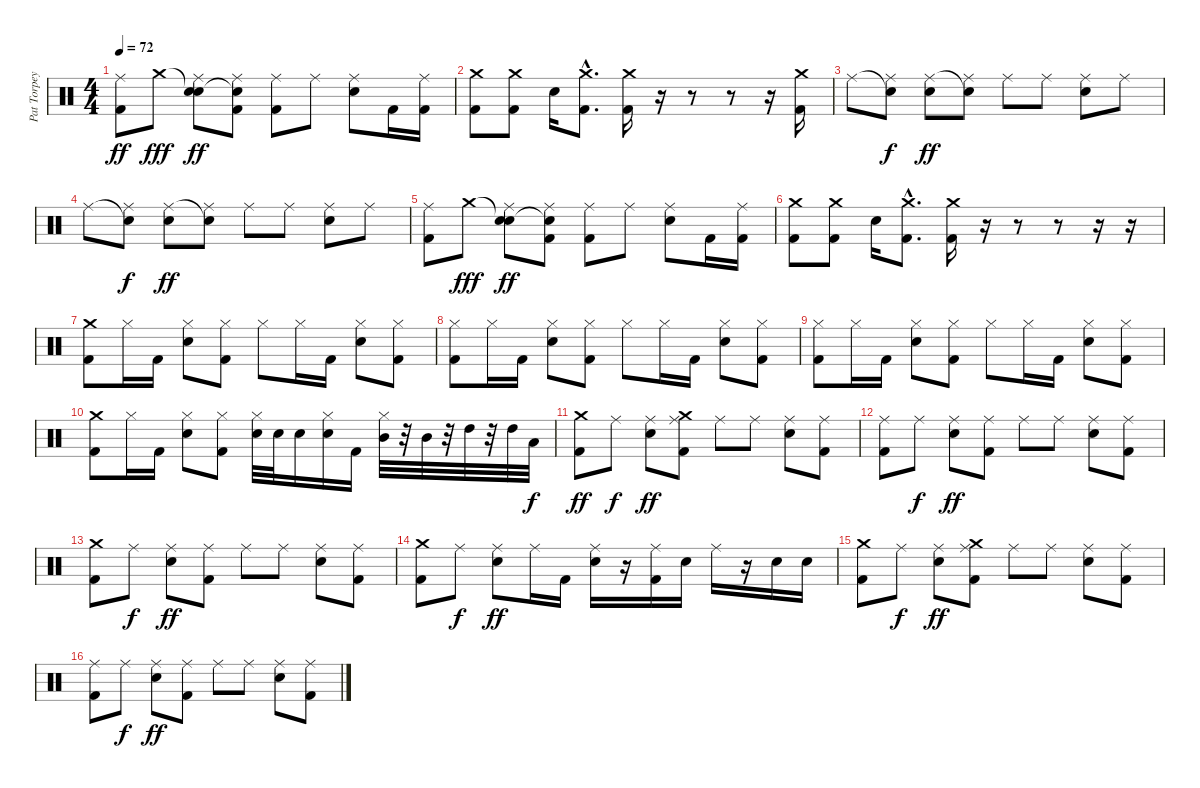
\track ("Pat Torpey" "Pat Torpey") {instrument percussion}
\staff {score}
\articulation defaults
\ts (4 4)
\tempo 72
\clef neutral
\ks c
("Ride (middle)" "Kick (hit) 2").8{dy ff} "Crash medium (hit)".8{dy fff} ("Snare (hit)"{t} "Ride (middle)" "Snare (hit) 2").8{dy ff} ("Snare (hit)"{t} "Ride (middle)" "Kick (hit) 2").8 ("Ride (middle)" "Kick (hit) 2").8 "Ride (middle)".8 ("Ride (middle)" "Snare (hit) 2").8 "Kick (hit) 2".16 ("Ride (middle)" "Kick (hit) 2").16 |
("Crash medium (hit)" "Kick (hit) 2").8 ("Crash medium (hit)" "Kick (hit) 2").8 "Snare (hit) 2".16 ("Crash medium (hit)"{hac} "Kick (hit) 2"{hac}).8{d} ("Crash medium (hit)" "Kick (hit) 2").16 r.16 r.8 r.8 r.16 ("Crash medium (hit)" "Kick (hit) 2").16 |
"Ride (middle)".8 ("Snare (hit)"{t} "Ride (middle)").8{dy f} ("Ride (middle)" "Snare (hit) 2").8{dy ff} ("Snare (hit)"{t} "Ride (middle)").8 "Ride (middle)".8 "Ride (middle)".8 ("Ride (middle)" "Snare (hit) 2").8 "Ride (middle)".8 |
"Ride (middle)".8 ("Snare (hit)"{t} "Ride (middle)").8{dy f} ("Ride (middle)" "Snare (hit) 2").8{dy ff} ("Snare (hit)"{t} "Ride (middle)").8 "Ride (middle)".8 "Ride (middle)".8 ("Ride (middle)" "Snare (hit) 2").8 "Ride (middle)".8 |
("Ride (middle)" "Kick (hit) 2").8 "Crash medium (hit)".8{dy fff} ("Snare (hit)"{t} "Ride (middle)" "Snare (hit) 2").8{dy ff} ("Snare (hit)"{t} "Ride (middle)" "Kick (hit) 2").8 ("Ride (middle)" "Kick (hit) 2").8 "Ride (middle)".8 ("Ride (middle)" "Snare (hit) 2").8 "Kick (hit) 2".16 ("Ride (middle)" "Kick (hit) 2").16 |
("Crash medium (hit)" "Kick (hit) 2").8 ("Crash medium (hit)" "Kick (hit) 2").8 "Snare (hit) 2".16 ("Crash medium (hit)"{hac} "Kick (hit) 2"{hac}).8{d} ("Crash medium (hit)" "Kick (hit) 2").16 r.16 r.8 r.8 r.16 r.16 |
("Crash medium (hit)" "Kick (hit) 2").8 "Hi-Hat (closed)".16 "Kick (hit) 2".16 ("Hi-Hat (closed)" "Snare (hit) 2").8 ("Hi-Hat (closed)" "Kick (hit) 2").8 "Hi-Hat (closed)".8 "Hi-Hat (closed)".16 "Kick (hit) 2".16 ("Hi-Hat (closed)" "Snare (hit) 2").8 ("Hi-Hat (closed)" "Kick (hit) 2").8 |
("Hi-Hat (closed)" "Kick (hit) 2").8 "Hi-Hat (closed)".16 "Kick (hit) 2".16 ("Hi-Hat (closed)" "Snare (hit) 2").8 ("Hi-Hat (closed)" "Kick (hit) 2").8 "Hi-Hat (closed)".8 "Hi-Hat (closed)".16 "Kick (hit) 2".16 ("Hi-Hat (closed)" "Snare (hit) 2").8 ("Hi-Hat (closed)" "Kick (hit) 2").8 |
("Hi-Hat (closed)" "Kick (hit) 2").8 "Hi-Hat (closed)".16 "Kick (hit) 2".16 ("Hi-Hat (closed)" "Snare (hit) 2").8 ("Hi-Hat (closed)" "Kick (hit) 2").8 "Hi-Hat (closed)".8 "Hi-Hat (closed)".16 "Kick (hit) 2".16 ("Hi-Hat (closed)" "Snare (hit) 2").8 ("Hi-Hat (closed)" "Kick (hit) 2").8 |
("Crash medium (hit)" "Kick (hit) 2").8 "Hi-Hat (closed)".16 "Kick (hit) 2".16 ("Hi-Hat (closed)" "Snare (hit) 2").8 ("Hi-Hat (closed)" "Kick (hit) 2").8 ("Hi-Hat (closed)" "Snare (hit) 2").32 "Snare (hit) 2".32 "Snare (hit) 2".16 ("Hi-Hat (closed)" "Snare (hit) 2").16 "Kick (hit) 2".16 ("Hi-Hat (closed)" "Mid Tom (hit)").32 r.32 "Mid Tom (hit)".32 r.32 "High Tom (hit)".32 r.32 "High Tom (hit)".32 "Low Floor Tom (hit)".32{dy f} |
("Crash medium (hit)" "Kick (hit) 2").8{dy ff} "Ride (middle)".8{dy f} ("Ride (middle)" "Snare (hit) 2").8{dy ff} ("Crash medium (hit)" "Ride (middle)" "Kick (hit) 2").8 "Ride (middle)".8 "Ride (middle)".8 ("Ride (middle)" "Snare (hit) 2").8 ("Ride (middle)" "Kick (hit) 2").8 |
("Ride (middle)" "Kick (hit) 2").8 "Ride (middle)".8{dy f} ("Ride (middle)" "Snare (hit) 2").8{dy ff} ("Ride (middle)" "Kick (hit) 2").8 "Ride (middle)".8 "Ride (middle)".8 ("Ride (middle)" "Snare (hit) 2").8 ("Ride (middle)" "Kick (hit) 2").8 |
("Crash medium (hit)" "Kick (hit) 2").8 "Ride (middle)".8{dy f} ("Ride (middle)" "Snare (hit) 2").8{dy ff} ("Ride (middle)" "Kick (hit) 2").8 "Ride (middle)".8 "Ride (middle)".8 ("Ride (middle)" "Snare (hit) 2").8 ("Ride (middle)" "Kick (hit) 2").8 |
("Crash medium (hit)" "Kick (hit) 2").8 "Ride (middle)".8{dy f} ("Ride (middle)" "Snare (hit) 2").8{dy ff} "Ride (middle)".16 "Kick (hit) 2".16 ("Ride (middle)" "Snare (hit) 2").16 r.16 ("Ride (middle)" "Kick (hit) 2").16 "Snare (hit) 2".16 "Ride (middle)".16 r.16 "Snare (hit) 2".16 "Snare (hit) 2".16 |
("Crash medium (hit)" "Kick (hit) 2").8 "Ride (middle)".8{dy f} ("Ride (middle)" "Snare (hit) 2").8{dy ff} ("Crash medium (hit)" "Ride (middle)" "Kick (hit) 2").8 "Ride (middle)".8 "Ride (middle)".8 ("Ride (middle)" "Snare (hit) 2").8 ("Ride (middle)" "Kick (hit) 2").8 |
("Ride (middle)" "Kick (hit) 2").8 "Ride (middle)".8{dy f} ("Ride (middle)" "Snare (hit) 2").8{dy ff} ("Ride (middle)" "Kick (hit) 2").8 "Ride (middle)".8 "Ride (middle)".8 ("Ride (middle)" "Snare (hit) 2").8 ("Ride (middle)" "Kick (hit) 2").8
